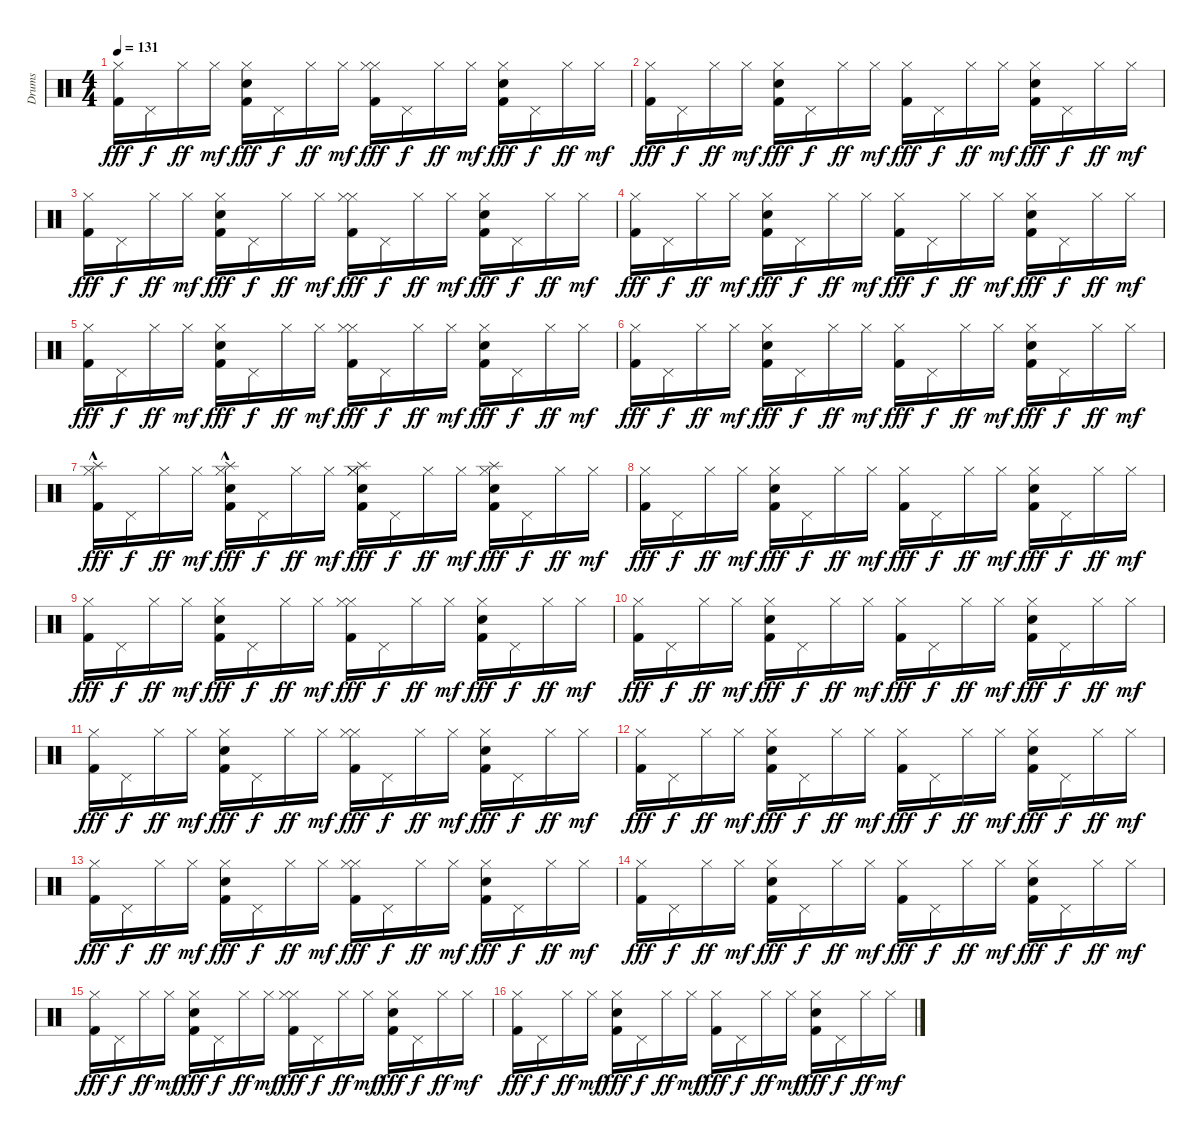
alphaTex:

\track ("Drums" "Drums") {instrument percussion}
\staff {score}
\articulation defaults
\ts (4 4)
\tempo 131
\clef neutral
\ks c
("Kick (hit) 2" "Hi-Hat (closed)").16{dy fff} "Pedal Hi-Hat (hit)".16{dy f} "Hi-Hat (closed)".16{dy ff} "Hi-Hat (closed)".16{dy mf} ("Kick (hit) 2" "Hand Clap (hit)" "Hi-Hat (closed)").16{dy fff} "Pedal Hi-Hat (hit)".16{dy f} "Hi-Hat (closed)".16{dy ff} "Hi-Hat (closed)".16{dy mf} ("Kick (hit) 2" "Hi-Hat (closed)" "Hi-Hat (closed)").16{dy fff} "Pedal Hi-Hat (hit)".16{dy f} "Hi-Hat (closed)".16{dy ff} "Hi-Hat (closed)".16{dy mf} ("Kick (hit) 2" "Hand Clap (hit)" "Hi-Hat (closed)").16{dy fff} "Pedal Hi-Hat (hit)".16{dy f} "Hi-Hat (closed)".16{dy ff} "Hi-Hat (closed)".16{dy mf} |
("Kick (hit) 2" "Hi-Hat (closed)").16{dy fff} "Pedal Hi-Hat (hit)".16{dy f} "Hi-Hat (closed)".16{dy ff} "Hi-Hat (closed)".16{dy mf} ("Kick (hit) 2" "Hand Clap (hit)" "Hi-Hat (closed)").16{dy fff} "Pedal Hi-Hat (hit)".16{dy f} "Hi-Hat (closed)".16{dy ff} "Hi-Hat (closed)".16{dy mf} ("Kick (hit) 2" "Hi-Hat (closed)").16{dy fff} "Pedal Hi-Hat (hit)".16{dy f} "Hi-Hat (closed)".16{dy ff} "Hi-Hat (closed)".16{dy mf} ("Kick (hit) 2" "Hand Clap (hit)" "Hi-Hat (closed)").16{dy fff} "Pedal Hi-Hat (hit)".16{dy f} "Hi-Hat (closed)".16{dy ff} "Hi-Hat (closed)".16{dy mf} |
("Kick (hit) 2" "Hi-Hat (closed)").16{dy fff} "Pedal Hi-Hat (hit)".16{dy f} "Hi-Hat (closed)".16{dy ff} "Hi-Hat (closed)".16{dy mf} ("Kick (hit) 2" "Hand Clap (hit)" "Hi-Hat (closed)").16{dy fff} "Pedal Hi-Hat (hit)".16{dy f} "Hi-Hat (closed)".16{dy ff} "Hi-Hat (closed)".16{dy mf} ("Kick (hit) 2" "Hi-Hat (closed)" "Hi-Hat (closed)").16{dy fff} "Pedal Hi-Hat (hit)".16{dy f} "Hi-Hat (closed)".16{dy ff} "Hi-Hat (closed)".16{dy mf} ("Kick (hit) 2" "Hand Clap (hit)" "Hi-Hat (closed)").16{dy fff} "Pedal Hi-Hat (hit)".16{dy f} "Hi-Hat (closed)".16{dy ff} "Hi-Hat (closed)".16{dy mf} |
("Kick (hit) 2" "Hi-Hat (closed)").16{dy fff} "Pedal Hi-Hat (hit)".16{dy f} "Hi-Hat (closed)".16{dy ff} "Hi-Hat (closed)".16{dy mf} ("Kick (hit) 2" "Hand Clap (hit)" "Hi-Hat (closed)").16{dy fff} "Pedal Hi-Hat (hit)".16{dy f} "Hi-Hat (closed)".16{dy ff} "Hi-Hat (closed)".16{dy mf} ("Kick (hit) 2" "Hi-Hat (closed)").16{dy fff} "Pedal Hi-Hat (hit)".16{dy f} "Hi-Hat (closed)".16{dy ff} "Hi-Hat (closed)".16{dy mf} ("Kick (hit) 2" "Hand Clap (hit)" "Hi-Hat (closed)").16{dy fff} "Pedal Hi-Hat (hit)".16{dy f} "Hi-Hat (closed)".16{dy ff} "Hi-Hat (closed)".16{dy mf} |
("Kick (hit) 2" "Hi-Hat (closed)").16{dy fff} "Pedal Hi-Hat (hit)".16{dy f} "Hi-Hat (closed)".16{dy ff} "Hi-Hat (closed)".16{dy mf} ("Kick (hit) 2" "Hand Clap (hit)" "Hi-Hat (closed)").16{dy fff} "Pedal Hi-Hat (hit)".16{dy f} "Hi-Hat (closed)".16{dy ff} "Hi-Hat (closed)".16{dy mf} ("Kick (hit) 2" "Hi-Hat (closed)" "Hi-Hat (closed)").16{dy fff} "Pedal Hi-Hat (hit)".16{dy f} "Hi-Hat (closed)".16{dy ff} "Hi-Hat (closed)".16{dy mf} ("Kick (hit) 2" "Hand Clap (hit)" "Hi-Hat (closed)").16{dy fff} "Pedal Hi-Hat (hit)".16{dy f} "Hi-Hat (closed)".16{dy ff} "Hi-Hat (closed)".16{dy mf} |
("Kick (hit) 2" "Hi-Hat (closed)").16{dy fff} "Pedal Hi-Hat (hit)".16{dy f} "Hi-Hat (closed)".16{dy ff} "Hi-Hat (closed)".16{dy mf} ("Kick (hit) 2" "Hand Clap (hit)" "Hi-Hat (closed)").16{dy fff} "Pedal Hi-Hat (hit)".16{dy f} "Hi-Hat (closed)".16{dy ff} "Hi-Hat (closed)".16{dy mf} ("Kick (hit) 2" "Hi-Hat (closed)").16{dy fff} "Pedal Hi-Hat (hit)".16{dy f} "Hi-Hat (closed)".16{dy ff} "Hi-Hat (closed)".16{dy mf} ("Kick (hit) 2" "Hand Clap (hit)" "Hi-Hat (closed)").16{dy fff} "Pedal Hi-Hat (hit)".16{dy f} "Hi-Hat (closed)".16{dy ff} "Hi-Hat (closed)".16{dy mf} |
("Kick (hit) 2" "Splash (hit)"{hac} "Hi-Hat (closed)").16{dy fff} "Pedal Hi-Hat (hit)".16{dy f} "Hi-Hat (closed)".16{dy ff} "Hi-Hat (closed)".16{dy mf} ("Kick (hit) 2" "Splash (hit)"{hac} "Hand Clap (hit)" "Hi-Hat (closed)").16{dy fff} "Pedal Hi-Hat (hit)".16{dy f} "Hi-Hat (closed)".16{dy ff} "Hi-Hat (closed)".16{dy mf} ("Kick (hit) 2" "Splash (hit)" "Hand Clap (hit)" "Hi-Hat (closed)" "Hi-Hat (closed)").16{dy fff} "Pedal Hi-Hat (hit)".16{dy f} "Hi-Hat (closed)".16{dy ff} "Hi-Hat (closed)".16{dy mf} ("Kick (hit) 2" "Splash (hit)" "Hand Clap (hit)" "Hi-Hat (closed)").16{dy fff} "Pedal Hi-Hat (hit)".16{dy f} "Hi-Hat (closed)".16{dy ff} "Hi-Hat (closed)".16{dy mf} |
("Kick (hit) 2" "Hi-Hat (closed)").16{dy fff} "Pedal Hi-Hat (hit)".16{dy f} "Hi-Hat (closed)".16{dy ff} "Hi-Hat (closed)".16{dy mf} ("Kick (hit) 2" "Hand Clap (hit)" "Hi-Hat (closed)").16{dy fff} "Pedal Hi-Hat (hit)".16{dy f} "Hi-Hat (closed)".16{dy ff} "Hi-Hat (closed)".16{dy mf} ("Kick (hit) 2" "Hi-Hat (closed)").16{dy fff} "Pedal Hi-Hat (hit)".16{dy f} "Hi-Hat (closed)".16{dy ff} "Hi-Hat (closed)".16{dy mf} ("Kick (hit) 2" "Hand Clap (hit)" "Hi-Hat (closed)").16{dy fff} "Pedal Hi-Hat (hit)".16{dy f} "Hi-Hat (closed)".16{dy ff} "Hi-Hat (closed)".16{dy mf} |
("Kick (hit) 2" "Hi-Hat (closed)").16{dy fff} "Pedal Hi-Hat (hit)".16{dy f} "Hi-Hat (closed)".16{dy ff} "Hi-Hat (closed)".16{dy mf} ("Kick (hit) 2" "Hand Clap (hit)" "Hi-Hat (closed)").16{dy fff} "Pedal Hi-Hat (hit)".16{dy f} "Hi-Hat (closed)".16{dy ff} "Hi-Hat (closed)".16{dy mf} ("Kick (hit) 2" "Hi-Hat (closed)" "Hi-Hat (closed)").16{dy fff} "Pedal Hi-Hat (hit)".16{dy f} "Hi-Hat (closed)".16{dy ff} "Hi-Hat (closed)".16{dy mf} ("Kick (hit) 2" "Hand Clap (hit)" "Hi-Hat (closed)").16{dy fff} "Pedal Hi-Hat (hit)".16{dy f} "Hi-Hat (closed)".16{dy ff} "Hi-Hat (closed)".16{dy mf} |
("Kick (hit) 2" "Hi-Hat (closed)").16{dy fff} "Pedal Hi-Hat (hit)".16{dy f} "Hi-Hat (closed)".16{dy ff} "Hi-Hat (closed)".16{dy mf} ("Kick (hit) 2" "Hand Clap (hit)" "Hi-Hat (closed)").16{dy fff} "Pedal Hi-Hat (hit)".16{dy f} "Hi-Hat (closed)".16{dy ff} "Hi-Hat (closed)".16{dy mf} ("Kick (hit) 2" "Hi-Hat (closed)").16{dy fff} "Pedal Hi-Hat (hit)".16{dy f} "Hi-Hat (closed)".16{dy ff} "Hi-Hat (closed)".16{dy mf} ("Kick (hit) 2" "Hand Clap (hit)" "Hi-Hat (closed)").16{dy fff} "Pedal Hi-Hat (hit)".16{dy f} "Hi-Hat (closed)".16{dy ff} "Hi-Hat (closed)".16{dy mf} |
("Kick (hit) 2" "Hi-Hat (closed)").16{dy fff} "Pedal Hi-Hat (hit)".16{dy f} "Hi-Hat (closed)".16{dy ff} "Hi-Hat (closed)".16{dy mf} ("Kick (hit) 2" "Hand Clap (hit)" "Hi-Hat (closed)").16{dy fff} "Pedal Hi-Hat (hit)".16{dy f} "Hi-Hat (closed)".16{dy ff} "Hi-Hat (closed)".16{dy mf} ("Kick (hit) 2" "Hi-Hat (closed)" "Hi-Hat (closed)").16{dy fff} "Pedal Hi-Hat (hit)".16{dy f} "Hi-Hat (closed)".16{dy ff} "Hi-Hat (closed)".16{dy mf} ("Kick (hit) 2" "Hand Clap (hit)" "Hi-Hat (closed)").16{dy fff} "Pedal Hi-Hat (hit)".16{dy f} "Hi-Hat (closed)".16{dy ff} "Hi-Hat (closed)".16{dy mf} |
("Kick (hit) 2" "Hi-Hat (closed)").16{dy fff} "Pedal Hi-Hat (hit)".16{dy f} "Hi-Hat (closed)".16{dy ff} "Hi-Hat (closed)".16{dy mf} ("Kick (hit) 2" "Hand Clap (hit)" "Hi-Hat (closed)").16{dy fff} "Pedal Hi-Hat (hit)".16{dy f} "Hi-Hat (closed)".16{dy ff} "Hi-Hat (closed)".16{dy mf} ("Kick (hit) 2" "Hi-Hat (closed)").16{dy fff} "Pedal Hi-Hat (hit)".16{dy f} "Hi-Hat (closed)".16{dy ff} "Hi-Hat (closed)".16{dy mf} ("Kick (hit) 2" "Hand Clap (hit)" "Hi-Hat (closed)").16{dy fff} "Pedal Hi-Hat (hit)".16{dy f} "Hi-Hat (closed)".16{dy ff} "Hi-Hat (closed)".16{dy mf} |
("Kick (hit) 2" "Hi-Hat (closed)").16{dy fff} "Pedal Hi-Hat (hit)".16{dy f} "Hi-Hat (closed)".16{dy ff} "Hi-Hat (closed)".16{dy mf} ("Kick (hit) 2" "Hand Clap (hit)" "Hi-Hat (closed)").16{dy fff} "Pedal Hi-Hat (hit)".16{dy f} "Hi-Hat (closed)".16{dy ff} "Hi-Hat (closed)".16{dy mf} ("Kick (hit) 2" "Hi-Hat (closed)" "Hi-Hat (closed)").16{dy fff} "Pedal Hi-Hat (hit)".16{dy f} "Hi-Hat (closed)".16{dy ff} "Hi-Hat (closed)".16{dy mf} ("Kick (hit) 2" "Hand Clap (hit)" "Hi-Hat (closed)").16{dy fff} "Pedal Hi-Hat (hit)".16{dy f} "Hi-Hat (closed)".16{dy ff} "Hi-Hat (closed)".16{dy mf} |
("Kick (hit) 2" "Hi-Hat (closed)").16{dy fff} "Pedal Hi-Hat (hit)".16{dy f} "Hi-Hat (closed)".16{dy ff} "Hi-Hat (closed)".16{dy mf} ("Kick (hit) 2" "Hand Clap (hit)" "Hi-Hat (closed)").16{dy fff} "Pedal Hi-Hat (hit)".16{dy f} "Hi-Hat (closed)".16{dy ff} "Hi-Hat (closed)".16{dy mf} ("Kick (hit) 2" "Hi-Hat (closed)").16{dy fff} "Pedal Hi-Hat (hit)".16{dy f} "Hi-Hat (closed)".16{dy ff} "Hi-Hat (closed)".16{dy mf} ("Kick (hit) 2" "Hand Clap (hit)" "Hi-Hat (closed)").16{dy fff} "Pedal Hi-Hat (hit)".16{dy f} "Hi-Hat (closed)".16{dy ff} "Hi-Hat (closed)".16{dy mf} |
("Kick (hit) 2" "Hi-Hat (closed)").16{dy fff} "Pedal Hi-Hat (hit)".16{dy f} "Hi-Hat (closed)".16{dy ff} "Hi-Hat (closed)".16{dy mf} ("Kick (hit) 2" "Hand Clap (hit)" "Hi-Hat (closed)").16{dy fff} "Pedal Hi-Hat (hit)".16{dy f} "Hi-Hat (closed)".16{dy ff} "Hi-Hat (closed)".16{dy mf} ("Kick (hit) 2" "Hi-Hat (closed)" "Hi-Hat (closed)").16{dy fff} "Pedal Hi-Hat (hit)".16{dy f} "Hi-Hat (closed)".16{dy ff} "Hi-Hat (closed)".16{dy mf} ("Kick (hit) 2" "Hand Clap (hit)" "Hi-Hat (closed)").16{dy fff} "Pedal Hi-Hat (hit)".16{dy f} "Hi-Hat (closed)".16{dy ff} "Hi-Hat (closed)".16{dy mf} |
("Kick (hit) 2" "Hi-Hat (closed)").16{dy fff} "Pedal Hi-Hat (hit)".16{dy f} "Hi-Hat (closed)".16{dy ff} "Hi-Hat (closed)".16{dy mf} ("Kick (hit) 2" "Hand Clap (hit)" "Hi-Hat (closed)").16{dy fff} "Pedal Hi-Hat (hit)".16{dy f} "Hi-Hat (closed)".16{dy ff} "Hi-Hat (closed)".16{dy mf} ("Kick (hit) 2" "Hi-Hat (closed)").16{dy fff} "Pedal Hi-Hat (hit)".16{dy f} "Hi-Hat (closed)".16{dy ff} "Hi-Hat (closed)".16{dy mf} ("Kick (hit) 2" "Hand Clap (hit)" "Hi-Hat (closed)").16{dy fff} "Pedal Hi-Hat (hit)".16{dy f} "Hi-Hat (closed)".16{dy ff} "Hi-Hat (closed)".16{dy mf}
